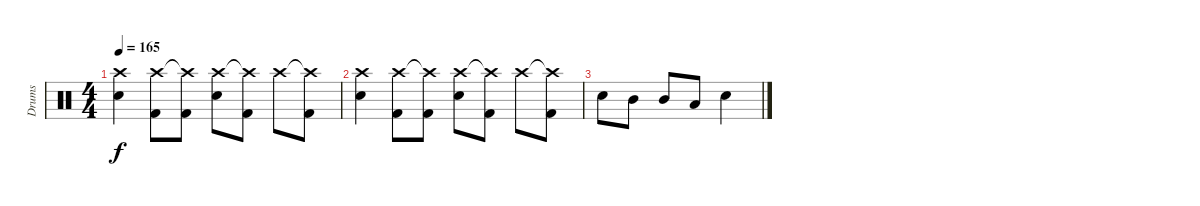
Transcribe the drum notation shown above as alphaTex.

\track ("Drums" "Drums") {instrument percussion}
\staff {score}
\articulation defaults
\ts (4 4)
\tempo 165
\clef neutral
\ks c
("Crash high (hit)" "Snare (hit) 2").4{dy f} ("Crash high (hit)" "Kick (hit) 2").8 ("Crash high (hit)"{t} "Kick (hit) 2").8 ("Crash high (hit)" "Snare (hit) 2").8 ("Crash high (hit)"{t} "Kick (hit) 2").8 "Crash high (hit)".8 ("Crash high (hit)"{t} "Kick (hit) 2").8 |
("Crash high (hit)" "Snare (hit) 2").4 ("Crash high (hit)" "Kick (hit) 2").8 ("Crash high (hit)"{t} "Kick (hit) 2").8 ("Crash high (hit)" "Snare (hit) 2").8 ("Crash high (hit)"{t} "Kick (hit) 2").8 "Crash high (hit)".8 ("Crash high (hit)"{t} "Kick (hit) 2").8 |
"Snare (hit) 2".8 "Mid Tom (hit)".8 "Mid Tom (hit)".8 "Low Tom (hit)".8 "Snare (hit) 2".4
